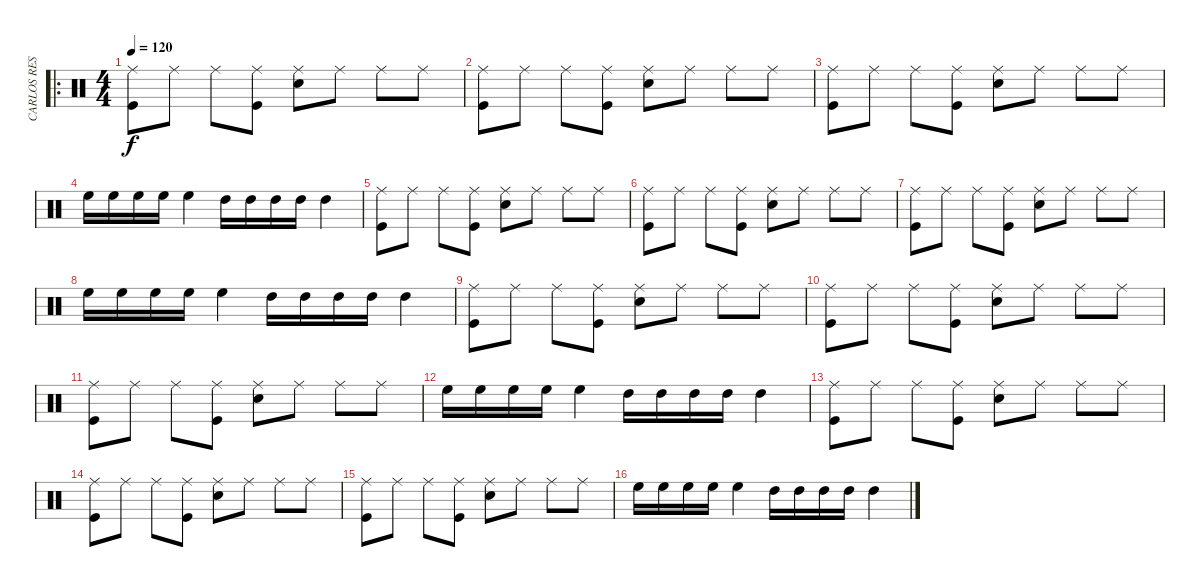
\track ("CARLOS RESTREPO DARK BATERIA" "CARLOS RES") {instrument percussion}
\staff {score}
\articulation defaults
\ro
\ts (4 4)
\tempo 120
\clef neutral
\ks c
("Ride (middle)" "Kick (hit)").8{dy f} "Ride (middle)".8 "Ride (middle)".8 ("Ride (middle)" "Kick (hit)").8 ("Ride (middle)" "Snare (hit) 2").8 "Ride (middle)".8 "Ride (middle)".8 "Ride (middle)".8 |
("Ride (middle)" "Kick (hit)").8 "Ride (middle)".8 "Ride (middle)".8 ("Ride (middle)" "Kick (hit)").8 ("Ride (middle)" "Snare (hit) 2").8 "Ride (middle)".8 "Ride (middle)".8 "Ride (middle)".8 |
("Ride (middle)" "Kick (hit)").8 "Ride (middle)".8 "Ride (middle)".8 ("Ride (middle)" "Kick (hit)").8 ("Ride (middle)" "Snare (hit) 2").8 "Ride (middle)".8 "Ride (middle)".8 "Ride (middle)".8 |
"High Floor Tom (hit)".16 "High Floor Tom (hit)".16 "High Floor Tom (hit)".16 "High Floor Tom (hit)".16 "High Floor Tom (hit)".4 "High Tom (hit)".16 "High Tom (hit)".16 "High Tom (hit)".16 "High Tom (hit)".16 "High Tom (hit)".4 |
("Ride (middle)" "Kick (hit)").8 "Ride (middle)".8 "Ride (middle)".8 ("Ride (middle)" "Kick (hit)").8 ("Ride (middle)" "Snare (hit) 2").8 "Ride (middle)".8 "Ride (middle)".8 "Ride (middle)".8 |
("Ride (middle)" "Kick (hit)").8 "Ride (middle)".8 "Ride (middle)".8 ("Ride (middle)" "Kick (hit)").8 ("Ride (middle)" "Snare (hit) 2").8 "Ride (middle)".8 "Ride (middle)".8 "Ride (middle)".8 |
("Ride (middle)" "Kick (hit)").8 "Ride (middle)".8 "Ride (middle)".8 ("Ride (middle)" "Kick (hit)").8 ("Ride (middle)" "Snare (hit) 2").8 "Ride (middle)".8 "Ride (middle)".8 "Ride (middle)".8 |
"High Floor Tom (hit)".16 "High Floor Tom (hit)".16 "High Floor Tom (hit)".16 "High Floor Tom (hit)".16 "High Floor Tom (hit)".4 "High Tom (hit)".16 "High Tom (hit)".16 "High Tom (hit)".16 "High Tom (hit)".16 "High Tom (hit)".4 |
("Ride (middle)" "Kick (hit)").8 "Ride (middle)".8 "Ride (middle)".8 ("Ride (middle)" "Kick (hit)").8 ("Ride (middle)" "Snare (hit) 2").8 "Ride (middle)".8 "Ride (middle)".8 "Ride (middle)".8 |
("Ride (middle)" "Kick (hit)").8 "Ride (middle)".8 "Ride (middle)".8 ("Ride (middle)" "Kick (hit)").8 ("Ride (middle)" "Snare (hit) 2").8 "Ride (middle)".8 "Ride (middle)".8 "Ride (middle)".8 |
("Ride (middle)" "Kick (hit)").8 "Ride (middle)".8 "Ride (middle)".8 ("Ride (middle)" "Kick (hit)").8 ("Ride (middle)" "Snare (hit) 2").8 "Ride (middle)".8 "Ride (middle)".8 "Ride (middle)".8 |
"High Floor Tom (hit)".16 "High Floor Tom (hit)".16 "High Floor Tom (hit)".16 "High Floor Tom (hit)".16 "High Floor Tom (hit)".4 "High Tom (hit)".16 "High Tom (hit)".16 "High Tom (hit)".16 "High Tom (hit)".16 "High Tom (hit)".4 |
("Ride (middle)" "Kick (hit)").8 "Ride (middle)".8 "Ride (middle)".8 ("Ride (middle)" "Kick (hit)").8 ("Ride (middle)" "Snare (hit) 2").8 "Ride (middle)".8 "Ride (middle)".8 "Ride (middle)".8 |
("Ride (middle)" "Kick (hit)").8 "Ride (middle)".8 "Ride (middle)".8 ("Ride (middle)" "Kick (hit)").8 ("Ride (middle)" "Snare (hit) 2").8 "Ride (middle)".8 "Ride (middle)".8 "Ride (middle)".8 |
("Ride (middle)" "Kick (hit)").8 "Ride (middle)".8 "Ride (middle)".8 ("Ride (middle)" "Kick (hit)").8 ("Ride (middle)" "Snare (hit) 2").8 "Ride (middle)".8 "Ride (middle)".8 "Ride (middle)".8 |
"High Floor Tom (hit)".16 "High Floor Tom (hit)".16 "High Floor Tom (hit)".16 "High Floor Tom (hit)".16 "High Floor Tom (hit)".4 "High Tom (hit)".16 "High Tom (hit)".16 "High Tom (hit)".16 "High Tom (hit)".16 "High Tom (hit)".4
